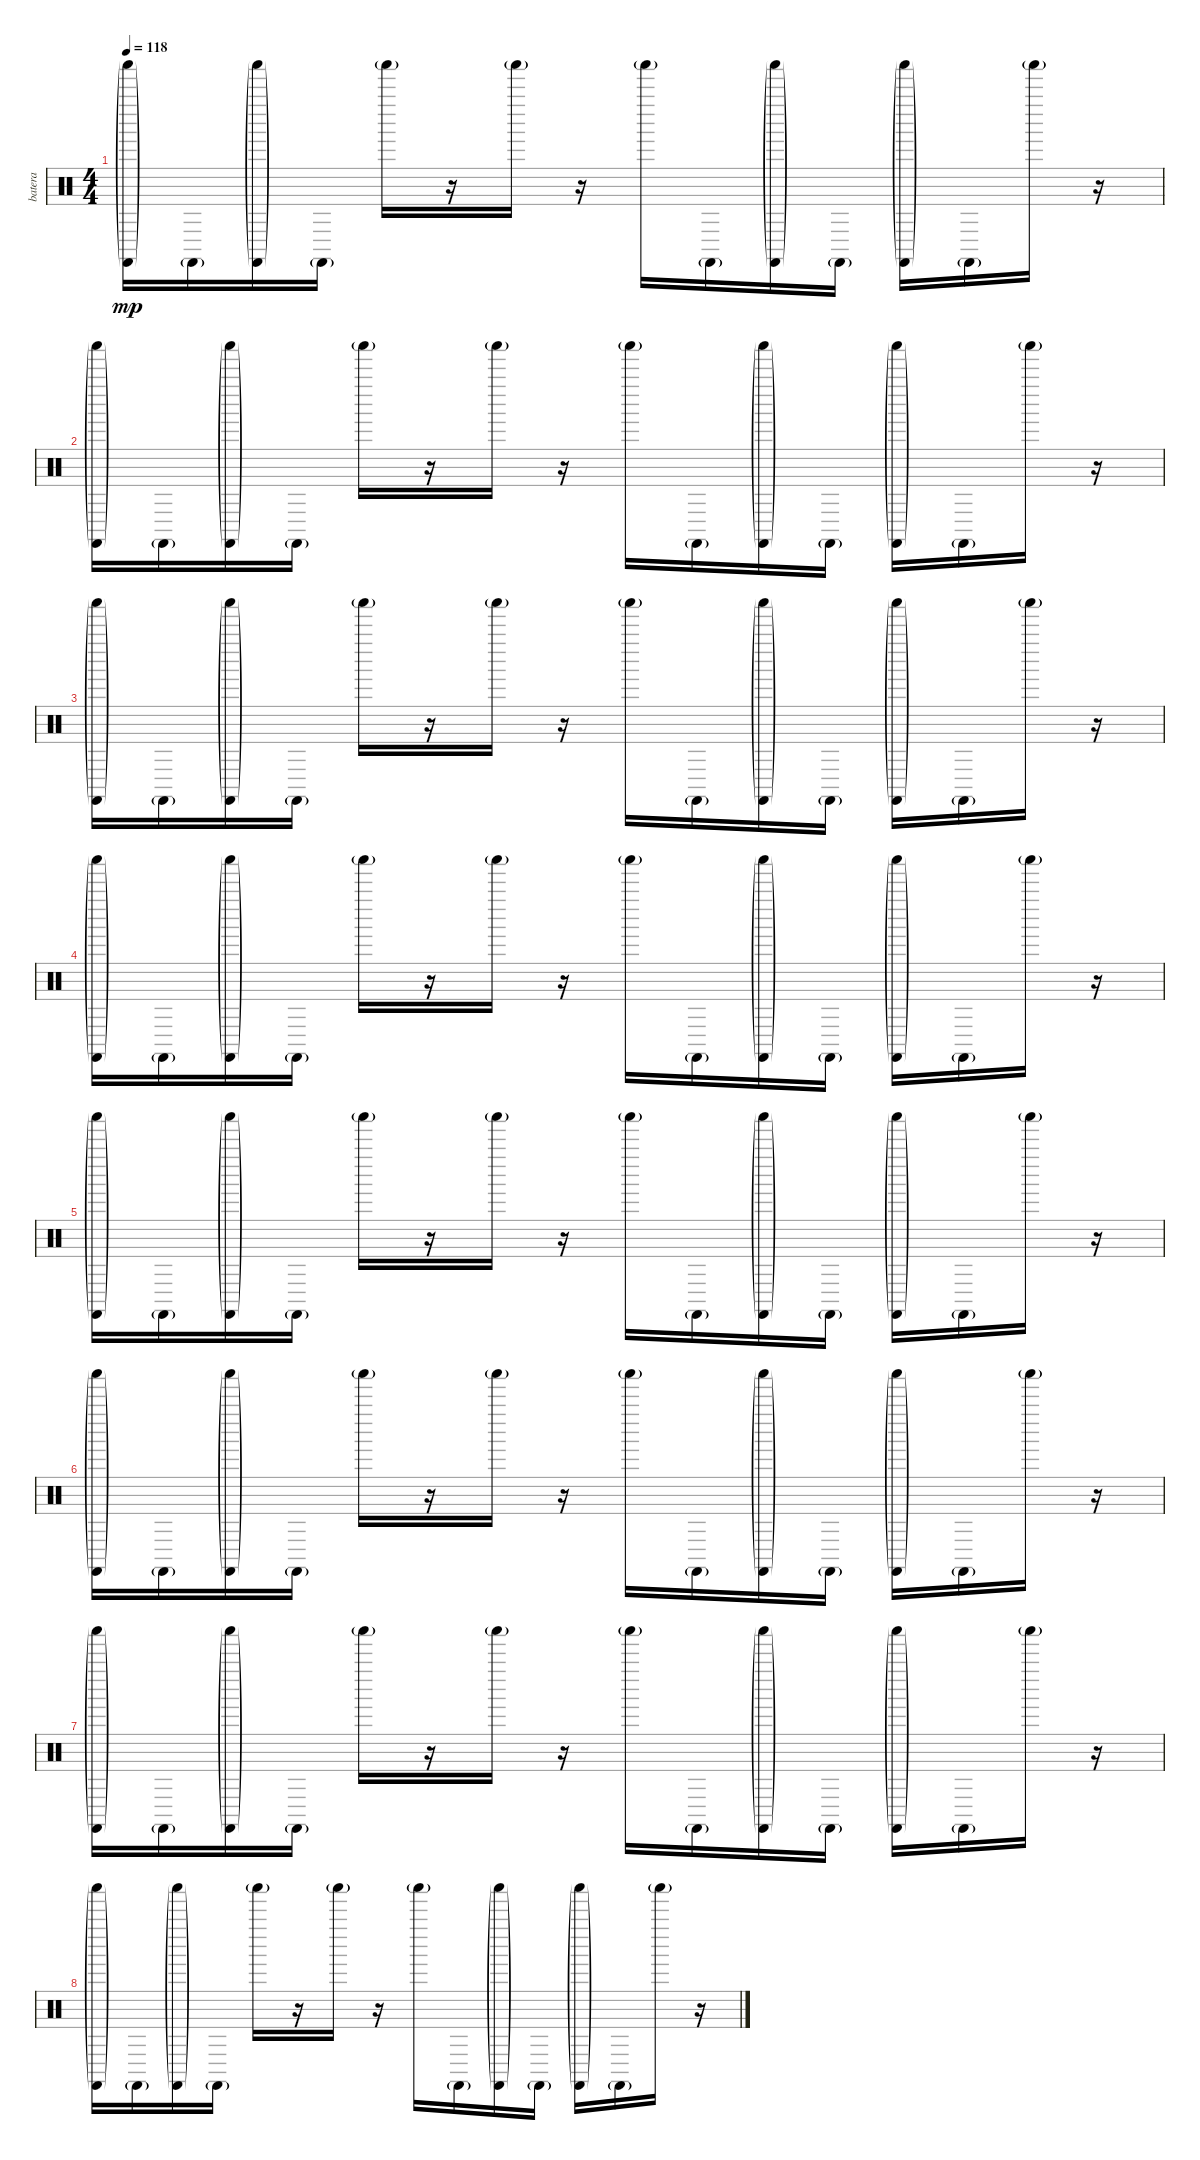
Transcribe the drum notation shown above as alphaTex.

\track ("batera" "batera") {instrument percussion}
\staff {score}
\articulation defaults
\ts (4 4)
\section ("" "")
\tempo 118
\clef neutral
\ks c
("Castanets (hit)"{g} "Shaker (hit)"{g}).16{dy mp} "Castanets (hit)"{g}.16 ("Castanets (hit)"{g} "Shaker (hit)"{g}).16 "Castanets (hit)"{g}.16 "Shaker (hit)"{g}.16 r.16 "Shaker (hit)"{g}.16 r.16 "Shaker (hit)"{g}.16 "Castanets (hit)"{g}.16 ("Castanets (hit)"{g} "Shaker (hit)"{g}).16 "Castanets (hit)"{g}.16 ("Castanets (hit)"{g} "Shaker (hit)"{g}).16 "Castanets (hit)"{g}.16 "Shaker (hit)"{g}.16 r.16 |
("Castanets (hit)"{g} "Shaker (hit)"{g}).16 "Castanets (hit)"{g}.16 ("Castanets (hit)"{g} "Shaker (hit)"{g}).16 "Castanets (hit)"{g}.16 "Shaker (hit)"{g}.16 r.16 "Shaker (hit)"{g}.16 r.16 "Shaker (hit)"{g}.16 "Castanets (hit)"{g}.16 ("Castanets (hit)"{g} "Shaker (hit)"{g}).16 "Castanets (hit)"{g}.16 ("Castanets (hit)"{g} "Shaker (hit)"{g}).16 "Castanets (hit)"{g}.16 "Shaker (hit)"{g}.16 r.16 |
("Castanets (hit)"{g} "Shaker (hit)"{g}).16 "Castanets (hit)"{g}.16 ("Castanets (hit)"{g} "Shaker (hit)"{g}).16 "Castanets (hit)"{g}.16 "Shaker (hit)"{g}.16 r.16 "Shaker (hit)"{g}.16 r.16 "Shaker (hit)"{g}.16 "Castanets (hit)"{g}.16 ("Castanets (hit)"{g} "Shaker (hit)"{g}).16 "Castanets (hit)"{g}.16 ("Castanets (hit)"{g} "Shaker (hit)"{g}).16 "Castanets (hit)"{g}.16 "Shaker (hit)"{g}.16 r.16 |
("Castanets (hit)"{g} "Shaker (hit)"{g}).16 "Castanets (hit)"{g}.16 ("Castanets (hit)"{g} "Shaker (hit)"{g}).16 "Castanets (hit)"{g}.16 "Shaker (hit)"{g}.16 r.16 "Shaker (hit)"{g}.16 r.16 "Shaker (hit)"{g}.16 "Castanets (hit)"{g}.16 ("Castanets (hit)"{g} "Shaker (hit)"{g}).16 "Castanets (hit)"{g}.16 ("Castanets (hit)"{g} "Shaker (hit)"{g}).16 "Castanets (hit)"{g}.16 "Shaker (hit)"{g}.16 r.16 |
("Castanets (hit)"{g} "Shaker (hit)"{g}).16 "Castanets (hit)"{g}.16 ("Castanets (hit)"{g} "Shaker (hit)"{g}).16 "Castanets (hit)"{g}.16 "Shaker (hit)"{g}.16 r.16 "Shaker (hit)"{g}.16 r.16 "Shaker (hit)"{g}.16 "Castanets (hit)"{g}.16 ("Castanets (hit)"{g} "Shaker (hit)"{g}).16 "Castanets (hit)"{g}.16 ("Castanets (hit)"{g} "Shaker (hit)"{g}).16 "Castanets (hit)"{g}.16 "Shaker (hit)"{g}.16 r.16 |
("Castanets (hit)"{g} "Shaker (hit)"{g}).16 "Castanets (hit)"{g}.16 ("Castanets (hit)"{g} "Shaker (hit)"{g}).16 "Castanets (hit)"{g}.16 "Shaker (hit)"{g}.16 r.16 "Shaker (hit)"{g}.16 r.16 "Shaker (hit)"{g}.16 "Castanets (hit)"{g}.16 ("Castanets (hit)"{g} "Shaker (hit)"{g}).16 "Castanets (hit)"{g}.16 ("Castanets (hit)"{g} "Shaker (hit)"{g}).16 "Castanets (hit)"{g}.16 "Shaker (hit)"{g}.16 r.16 |
("Castanets (hit)"{g} "Shaker (hit)"{g}).16 "Castanets (hit)"{g}.16 ("Castanets (hit)"{g} "Shaker (hit)"{g}).16 "Castanets (hit)"{g}.16 "Shaker (hit)"{g}.16 r.16 "Shaker (hit)"{g}.16 r.16 "Shaker (hit)"{g}.16 "Castanets (hit)"{g}.16 ("Castanets (hit)"{g} "Shaker (hit)"{g}).16 "Castanets (hit)"{g}.16 ("Castanets (hit)"{g} "Shaker (hit)"{g}).16 "Castanets (hit)"{g}.16 "Shaker (hit)"{g}.16 r.16 |
("Castanets (hit)"{g} "Shaker (hit)"{g}).16 "Castanets (hit)"{g}.16 ("Castanets (hit)"{g} "Shaker (hit)"{g}).16 "Castanets (hit)"{g}.16 "Shaker (hit)"{g}.16 r.16 "Shaker (hit)"{g}.16 r.16 "Shaker (hit)"{g}.16 "Castanets (hit)"{g}.16 ("Castanets (hit)"{g} "Shaker (hit)"{g}).16 "Castanets (hit)"{g}.16 ("Castanets (hit)"{g} "Shaker (hit)"{g}).16 "Castanets (hit)"{g}.16 "Shaker (hit)"{g}.16 r.16
